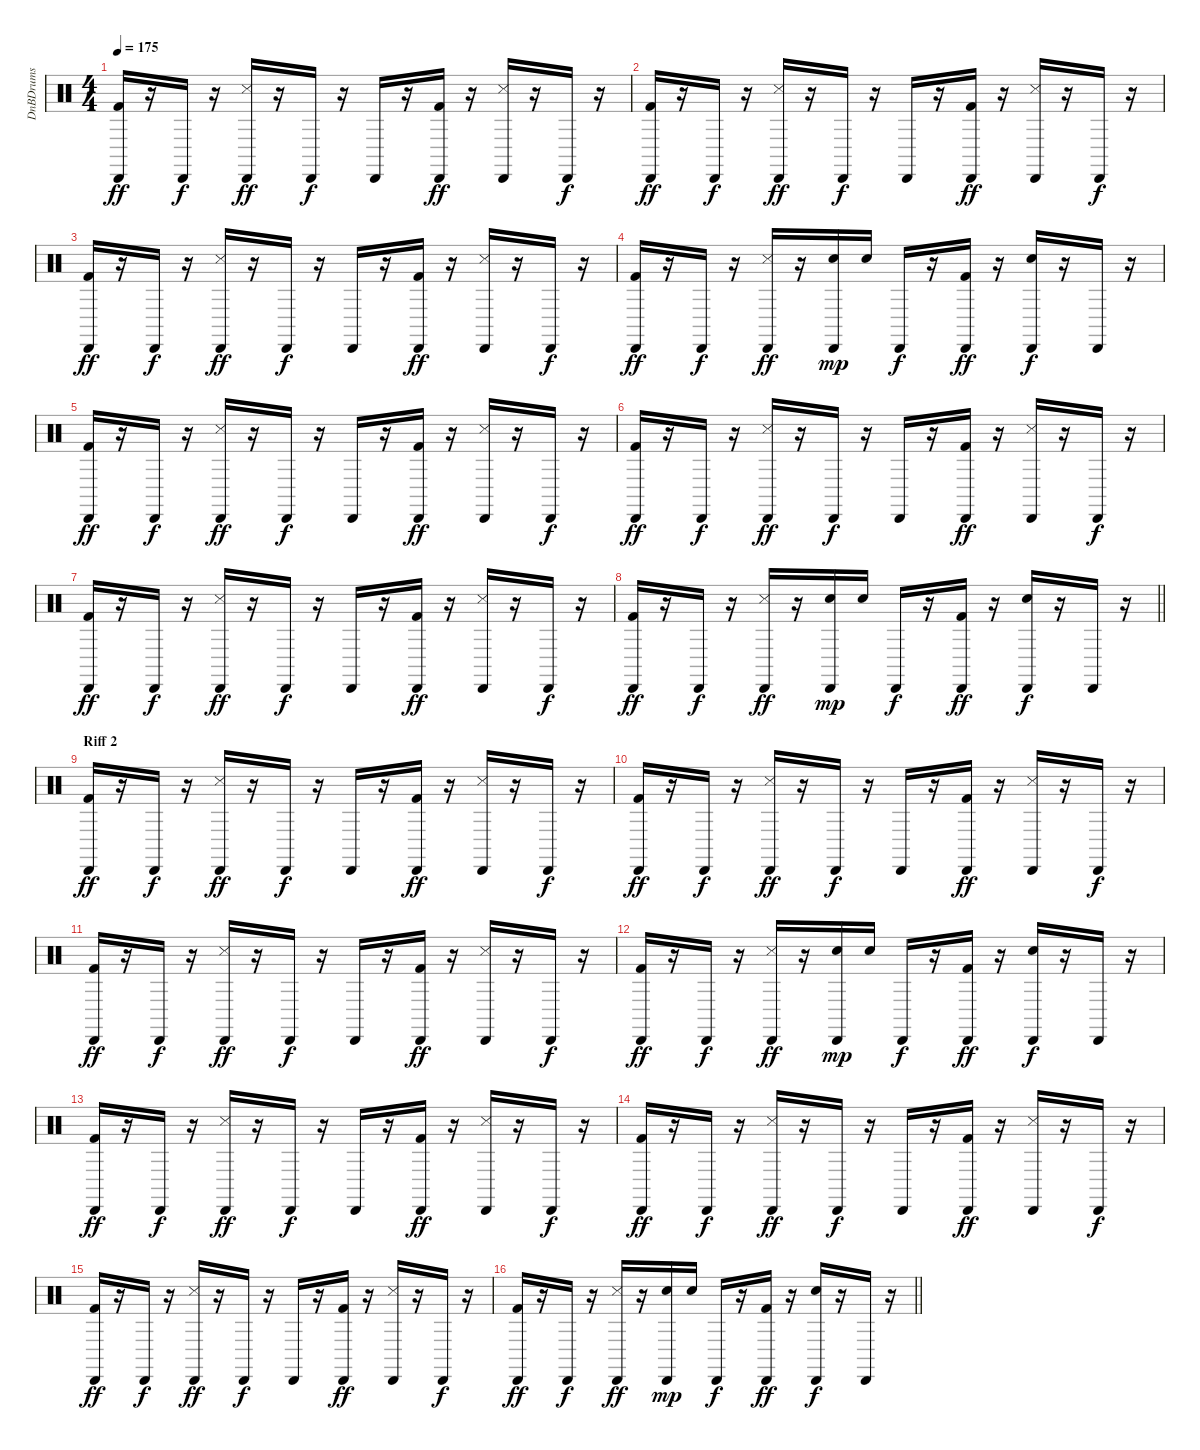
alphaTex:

\track ("DnBDrums" "DnBDrums") {instrument percussion}
\staff {score}
\articulation defaults
\ts (4 4)
\tempo 175
\clef neutral
\ks c
("Kick (hit) 2" "Cabasa (hit)").16{dy ff} r.16 "Cabasa (hit)".16{dy f} r.16 ("Snare (side stick) 3" "Cabasa (hit)").16{dy ff} r.16 "Cabasa (hit)".16{dy f} r.16 "Cabasa (hit)".16 r.16 ("Kick (hit) 2" "Cabasa (hit)").16{dy ff} r.16 ("Snare (side stick) 3" "Cabasa (hit)").16 r.16 "Cabasa (hit)".16{dy f} r.16 |
("Kick (hit) 2" "Cabasa (hit)").16{dy ff} r.16 "Cabasa (hit)".16{dy f} r.16 ("Snare (side stick) 3" "Cabasa (hit)").16{dy ff} r.16 "Cabasa (hit)".16{dy f} r.16 "Cabasa (hit)".16 r.16 ("Kick (hit) 2" "Cabasa (hit)").16{dy ff} r.16 ("Snare (side stick) 3" "Cabasa (hit)").16 r.16 "Cabasa (hit)".16{dy f} r.16 |
("Kick (hit) 2" "Cabasa (hit)").16{dy ff} r.16 "Cabasa (hit)".16{dy f} r.16 ("Snare (side stick) 3" "Cabasa (hit)").16{dy ff} r.16 "Cabasa (hit)".16{dy f} r.16 "Cabasa (hit)".16 r.16 ("Kick (hit) 2" "Cabasa (hit)").16{dy ff} r.16 ("Snare (side stick) 3" "Cabasa (hit)").16 r.16 "Cabasa (hit)".16{dy f} r.16 |
("Kick (hit) 2" "Cabasa (hit)").16{dy ff} r.16 "Cabasa (hit)".16{dy f} r.16 ("Snare (side stick) 3" "Cabasa (hit)").16{dy ff} r.16 ("Electric Snare (hit)" "Cabasa (hit)").16{dy mp} "Electric Snare (hit)".16 "Cabasa (hit)".16{dy f} r.16 ("Kick (hit) 2" "Cabasa (hit)").16{dy ff} r.16 ("Electric Snare (hit)" "Cabasa (hit)").16{dy f} r.16 "Cabasa (hit)".16 r.16 |
("Kick (hit) 2" "Cabasa (hit)").16{dy ff} r.16 "Cabasa (hit)".16{dy f} r.16 ("Snare (side stick) 3" "Cabasa (hit)").16{dy ff} r.16 "Cabasa (hit)".16{dy f} r.16 "Cabasa (hit)".16 r.16 ("Kick (hit) 2" "Cabasa (hit)").16{dy ff} r.16 ("Snare (side stick) 3" "Cabasa (hit)").16 r.16 "Cabasa (hit)".16{dy f} r.16 |
("Kick (hit) 2" "Cabasa (hit)").16{dy ff} r.16 "Cabasa (hit)".16{dy f} r.16 ("Snare (side stick) 3" "Cabasa (hit)").16{dy ff} r.16 "Cabasa (hit)".16{dy f} r.16 "Cabasa (hit)".16 r.16 ("Kick (hit) 2" "Cabasa (hit)").16{dy ff} r.16 ("Snare (side stick) 3" "Cabasa (hit)").16 r.16 "Cabasa (hit)".16{dy f} r.16 |
("Kick (hit) 2" "Cabasa (hit)").16{dy ff} r.16 "Cabasa (hit)".16{dy f} r.16 ("Snare (side stick) 3" "Cabasa (hit)").16{dy ff} r.16 "Cabasa (hit)".16{dy f} r.16 "Cabasa (hit)".16 r.16 ("Kick (hit) 2" "Cabasa (hit)").16{dy ff} r.16 ("Snare (side stick) 3" "Cabasa (hit)").16 r.16 "Cabasa (hit)".16{dy f} r.16 |
\barLineRight lightlight
("Kick (hit) 2" "Cabasa (hit)").16{dy ff} r.16 "Cabasa (hit)".16{dy f} r.16 ("Snare (side stick) 3" "Cabasa (hit)").16{dy ff} r.16 ("Electric Snare (hit)" "Cabasa (hit)").16{dy mp} "Electric Snare (hit)".16 "Cabasa (hit)".16{dy f} r.16 ("Kick (hit) 2" "Cabasa (hit)").16{dy ff} r.16 ("Electric Snare (hit)" "Cabasa (hit)").16{dy f} r.16 "Cabasa (hit)".16 r.16 |
\section ("" "Riff 2")
("Kick (hit) 2" "Cabasa (hit)").16{dy ff} r.16 "Cabasa (hit)".16{dy f} r.16 ("Snare (side stick) 3" "Cabasa (hit)").16{dy ff} r.16 "Cabasa (hit)".16{dy f} r.16 "Cabasa (hit)".16 r.16 ("Kick (hit) 2" "Cabasa (hit)").16{dy ff} r.16 ("Snare (side stick) 3" "Cabasa (hit)").16 r.16 "Cabasa (hit)".16{dy f} r.16 |
("Kick (hit) 2" "Cabasa (hit)").16{dy ff} r.16 "Cabasa (hit)".16{dy f} r.16 ("Snare (side stick) 3" "Cabasa (hit)").16{dy ff} r.16 "Cabasa (hit)".16{dy f} r.16 "Cabasa (hit)".16 r.16 ("Kick (hit) 2" "Cabasa (hit)").16{dy ff} r.16 ("Snare (side stick) 3" "Cabasa (hit)").16 r.16 "Cabasa (hit)".16{dy f} r.16 |
("Kick (hit) 2" "Cabasa (hit)").16{dy ff} r.16 "Cabasa (hit)".16{dy f} r.16 ("Snare (side stick) 3" "Cabasa (hit)").16{dy ff} r.16 "Cabasa (hit)".16{dy f} r.16 "Cabasa (hit)".16 r.16 ("Kick (hit) 2" "Cabasa (hit)").16{dy ff} r.16 ("Snare (side stick) 3" "Cabasa (hit)").16 r.16 "Cabasa (hit)".16{dy f} r.16 |
("Kick (hit) 2" "Cabasa (hit)").16{dy ff} r.16 "Cabasa (hit)".16{dy f} r.16 ("Snare (side stick) 3" "Cabasa (hit)").16{dy ff} r.16 ("Electric Snare (hit)" "Cabasa (hit)").16{dy mp} "Electric Snare (hit)".16 "Cabasa (hit)".16{dy f} r.16 ("Kick (hit) 2" "Cabasa (hit)").16{dy ff} r.16 ("Electric Snare (hit)" "Cabasa (hit)").16{dy f} r.16 "Cabasa (hit)".16 r.16 |
("Kick (hit) 2" "Cabasa (hit)").16{dy ff} r.16 "Cabasa (hit)".16{dy f} r.16 ("Snare (side stick) 3" "Cabasa (hit)").16{dy ff} r.16 "Cabasa (hit)".16{dy f} r.16 "Cabasa (hit)".16 r.16 ("Kick (hit) 2" "Cabasa (hit)").16{dy ff} r.16 ("Snare (side stick) 3" "Cabasa (hit)").16 r.16 "Cabasa (hit)".16{dy f} r.16 |
("Kick (hit) 2" "Cabasa (hit)").16{dy ff} r.16 "Cabasa (hit)".16{dy f} r.16 ("Snare (side stick) 3" "Cabasa (hit)").16{dy ff} r.16 "Cabasa (hit)".16{dy f} r.16 "Cabasa (hit)".16 r.16 ("Kick (hit) 2" "Cabasa (hit)").16{dy ff} r.16 ("Snare (side stick) 3" "Cabasa (hit)").16 r.16 "Cabasa (hit)".16{dy f} r.16 |
("Kick (hit) 2" "Cabasa (hit)").16{dy ff} r.16 "Cabasa (hit)".16{dy f} r.16 ("Snare (side stick) 3" "Cabasa (hit)").16{dy ff} r.16 "Cabasa (hit)".16{dy f} r.16 "Cabasa (hit)".16 r.16 ("Kick (hit) 2" "Cabasa (hit)").16{dy ff} r.16 ("Snare (side stick) 3" "Cabasa (hit)").16 r.16 "Cabasa (hit)".16{dy f} r.16 |
\barLineRight lightlight
("Kick (hit) 2" "Cabasa (hit)").16{dy ff} r.16 "Cabasa (hit)".16{dy f} r.16 ("Snare (side stick) 3" "Cabasa (hit)").16{dy ff} r.16 ("Electric Snare (hit)" "Cabasa (hit)").16{dy mp} "Electric Snare (hit)".16 "Cabasa (hit)".16{dy f} r.16 ("Kick (hit) 2" "Cabasa (hit)").16{dy ff} r.16 ("Electric Snare (hit)" "Cabasa (hit)").16{dy f} r.16 "Cabasa (hit)".16 r.16
